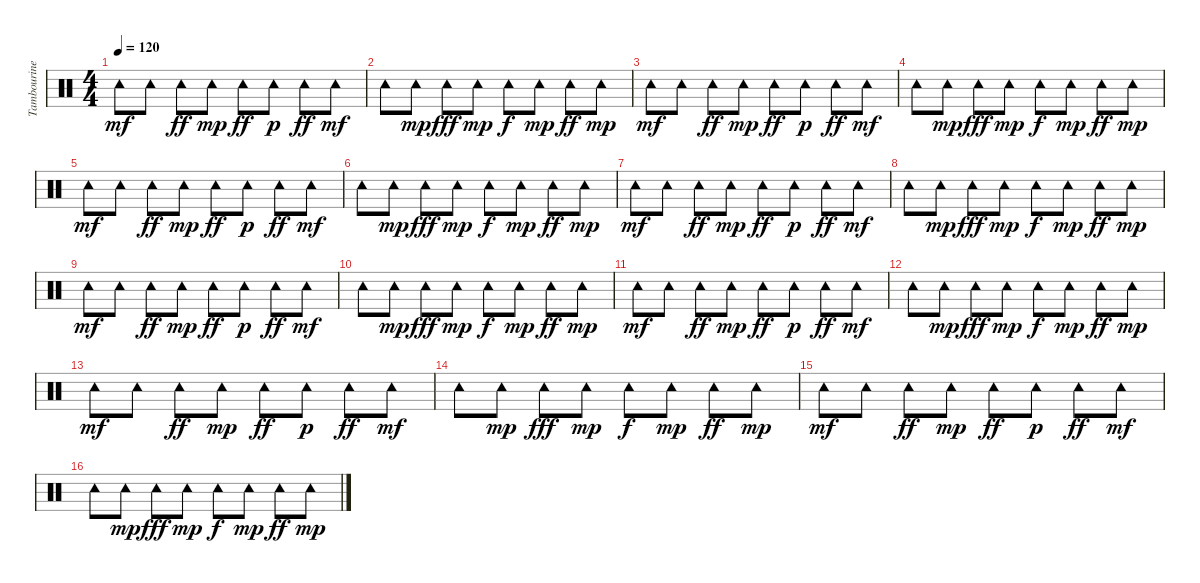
\track ("Tambourine" "Tambourine") {instrument percussion}
\staff {score}
\articulation defaults
\ts (4 4)
\tempo 120
\clef neutral
\ks c "Tambourine (hit)".8{dy mf} "Tambourine (hit)".8 "Tambourine (hit)".8{dy ff} "Tambourine (hit)".8{dy mp} "Tambourine (hit)".8{dy ff} "Tambourine (hit)".8{dy p} "Tambourine (hit)".8{dy ff} "Tambourine (hit)".8{dy mf}
|
"Tambourine (hit)".8 "Tambourine (hit)".8{dy mp} "Tambourine (hit)".8{dy fff} "Tambourine (hit)".8{dy mp} "Tambourine (hit)".8{dy f} "Tambourine (hit)".8{dy mp} "Tambourine (hit)".8{dy ff} "Tambourine (hit)".8{dy mp} |
"Tambourine (hit)".8{dy mf} "Tambourine (hit)".8 "Tambourine (hit)".8{dy ff} "Tambourine (hit)".8{dy mp} "Tambourine (hit)".8{dy ff} "Tambourine (hit)".8{dy p} "Tambourine (hit)".8{dy ff} "Tambourine (hit)".8{dy mf} |
"Tambourine (hit)".8 "Tambourine (hit)".8{dy mp} "Tambourine (hit)".8{dy fff} "Tambourine (hit)".8{dy mp} "Tambourine (hit)".8{dy f} "Tambourine (hit)".8{dy mp} "Tambourine (hit)".8{dy ff} "Tambourine (hit)".8{dy mp} |
"Tambourine (hit)".8{dy mf} "Tambourine (hit)".8 "Tambourine (hit)".8{dy ff} "Tambourine (hit)".8{dy mp} "Tambourine (hit)".8{dy ff} "Tambourine (hit)".8{dy p} "Tambourine (hit)".8{dy ff} "Tambourine (hit)".8{dy mf} |
"Tambourine (hit)".8 "Tambourine (hit)".8{dy mp} "Tambourine (hit)".8{dy fff} "Tambourine (hit)".8{dy mp} "Tambourine (hit)".8{dy f} "Tambourine (hit)".8{dy mp} "Tambourine (hit)".8{dy ff} "Tambourine (hit)".8{dy mp} |
"Tambourine (hit)".8{dy mf} "Tambourine (hit)".8 "Tambourine (hit)".8{dy ff} "Tambourine (hit)".8{dy mp} "Tambourine (hit)".8{dy ff} "Tambourine (hit)".8{dy p} "Tambourine (hit)".8{dy ff} "Tambourine (hit)".8{dy mf} |
"Tambourine (hit)".8 "Tambourine (hit)".8{dy mp} "Tambourine (hit)".8{dy fff} "Tambourine (hit)".8{dy mp} "Tambourine (hit)".8{dy f} "Tambourine (hit)".8{dy mp} "Tambourine (hit)".8{dy ff} "Tambourine (hit)".8{dy mp} |
"Tambourine (hit)".8{dy mf} "Tambourine (hit)".8 "Tambourine (hit)".8{dy ff} "Tambourine (hit)".8{dy mp} "Tambourine (hit)".8{dy ff} "Tambourine (hit)".8{dy p} "Tambourine (hit)".8{dy ff} "Tambourine (hit)".8{dy mf} |
"Tambourine (hit)".8 "Tambourine (hit)".8{dy mp} "Tambourine (hit)".8{dy fff} "Tambourine (hit)".8{dy mp} "Tambourine (hit)".8{dy f} "Tambourine (hit)".8{dy mp} "Tambourine (hit)".8{dy ff} "Tambourine (hit)".8{dy mp} |
"Tambourine (hit)".8{dy mf} "Tambourine (hit)".8 "Tambourine (hit)".8{dy ff} "Tambourine (hit)".8{dy mp} "Tambourine (hit)".8{dy ff} "Tambourine (hit)".8{dy p} "Tambourine (hit)".8{dy ff} "Tambourine (hit)".8{dy mf} |
"Tambourine (hit)".8 "Tambourine (hit)".8{dy mp} "Tambourine (hit)".8{dy fff} "Tambourine (hit)".8{dy mp} "Tambourine (hit)".8{dy f} "Tambourine (hit)".8{dy mp} "Tambourine (hit)".8{dy ff} "Tambourine (hit)".8{dy mp} |
"Tambourine (hit)".8{dy mf} "Tambourine (hit)".8 "Tambourine (hit)".8{dy ff} "Tambourine (hit)".8{dy mp} "Tambourine (hit)".8{dy ff} "Tambourine (hit)".8{dy p} "Tambourine (hit)".8{dy ff} "Tambourine (hit)".8{dy mf} |
"Tambourine (hit)".8 "Tambourine (hit)".8{dy mp} "Tambourine (hit)".8{dy fff} "Tambourine (hit)".8{dy mp} "Tambourine (hit)".8{dy f} "Tambourine (hit)".8{dy mp} "Tambourine (hit)".8{dy ff} "Tambourine (hit)".8{dy mp} |
"Tambourine (hit)".8{dy mf} "Tambourine (hit)".8 "Tambourine (hit)".8{dy ff} "Tambourine (hit)".8{dy mp} "Tambourine (hit)".8{dy ff} "Tambourine (hit)".8{dy p} "Tambourine (hit)".8{dy ff} "Tambourine (hit)".8{dy mf} |
"Tambourine (hit)".8 "Tambourine (hit)".8{dy mp} "Tambourine (hit)".8{dy fff} "Tambourine (hit)".8{dy mp} "Tambourine (hit)".8{dy f} "Tambourine (hit)".8{dy mp} "Tambourine (hit)".8{dy ff} "Tambourine (hit)".8{dy mp}
